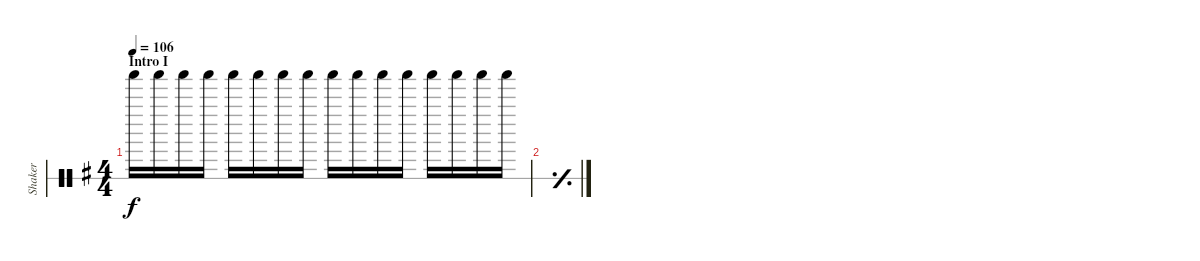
\defaultSystemsLayout 4
\bracketExtendMode groupsimilarinstruments
\otherSystemsTrackNameOrientation horizontal
\track ("Shaker" "Shaker") {multiBarRest instrument percussion}
\staff {score 1}
\articulation defaults
\ts (4 4)
\section ("" "Intro I")
\tempo 106
\clef neutral
\ks g "Shaker (hit)"{acc forcenatural}.16{dy f} "Shaker (hit)"{acc forcenatural}.16 "Shaker (hit)"{acc forcenatural}.16 "Shaker (hit)"{acc forcenatural}.16 "Shaker (hit)"{acc forcenatural}.16 "Shaker (hit)"{acc forcenatural}.16 "Shaker (hit)"{acc forcenatural}.16 "Shaker (hit)"{acc forcenatural}.16 "Shaker (hit)"{acc forcenatural}.16 "Shaker (hit)"{acc forcenatural}.16 "Shaker (hit)"{acc forcenatural}.16 "Shaker (hit)"{acc forcenatural}.16 "Shaker (hit)"{acc forcenatural}.16 "Shaker (hit)"{acc forcenatural}.16 "Shaker (hit)"{acc forcenatural}.16 "Shaker (hit)"{acc forcenatural}.16
|
\simile simple
